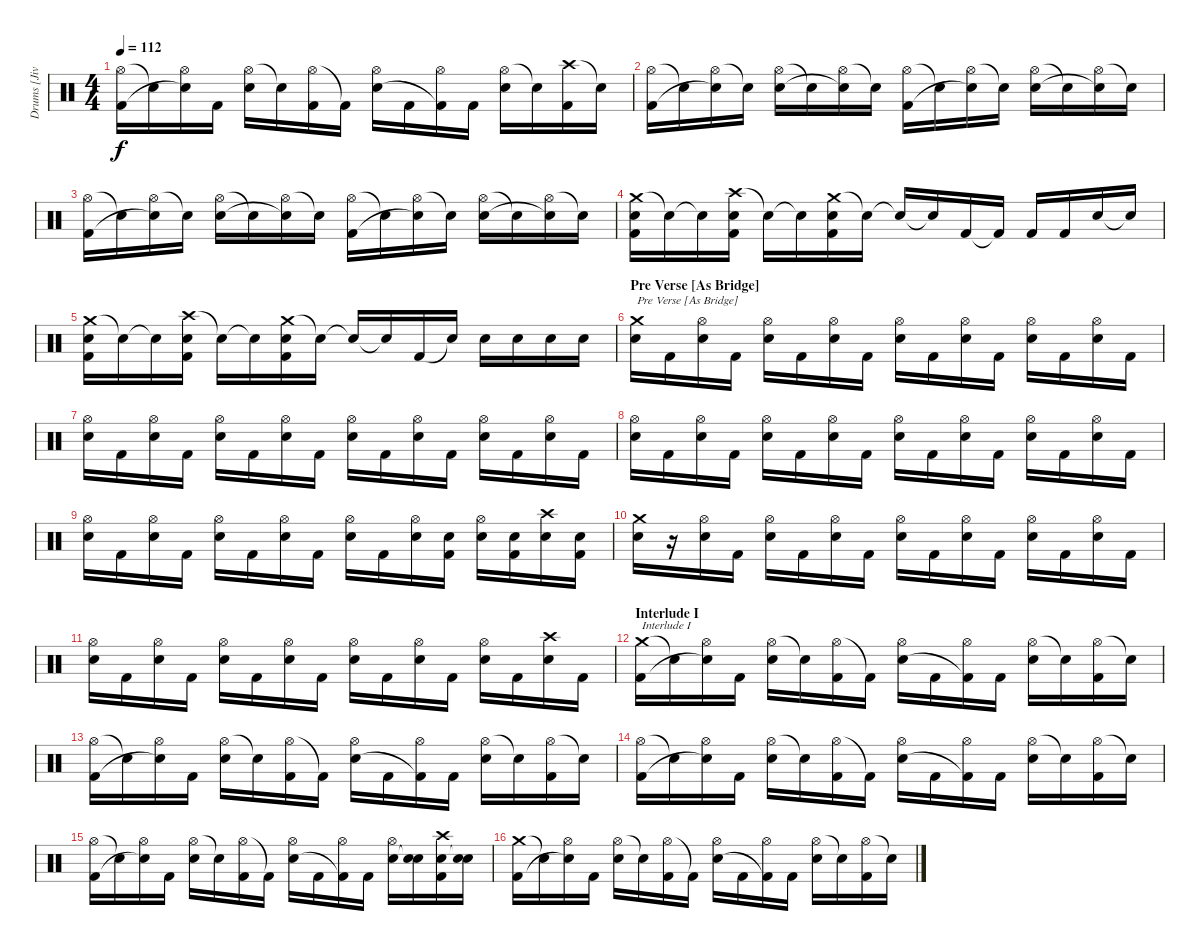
\track ("Drums [Jivarp]" "Drums [Jiv") {instrument percussion}
\staff {score}
\articulation defaults
\ts (4 4)
\tempo 112
\clef neutral
\ks c
("Hi-Hat (open)" "Kick (hit) 2").16{dy f} "Snare (hit)"{t}.16 ("Hi-Hat (open)" "Snare (hit)"{t}).16 "Kick (hit) 2".16 ("Hi-Hat (open)" "Electric Snare (hit)").16 "Snare (hit)"{t}.16 ("Hi-Hat (open)" "Kick (hit) 2").16 "Kick (hit) 2"{t}.16 ("Hi-Hat (open)" "Electric Snare (hit)").16 "Kick (hit) 2".16 ("Hi-Hat (open)" "Kick (hit) 2"{t}).16 "Kick (hit) 2".16 ("Hi-Hat (open)" "Electric Snare (hit)").16 "Snare (hit)"{t}.16 ("Crash high (hit)" "Kick (hit) 2").16 "Snare (hit)"{t}.16 |
("Hi-Hat (open)" "Kick (hit) 2").16 "Snare (hit)"{t}.16 ("Hi-Hat (open)" "Snare (hit)"{t}).16 "Snare (hit)"{t}.16 ("Hi-Hat (open)" "Electric Snare (hit)").16 "Snare (hit)"{t}.16 ("Hi-Hat (open)" "Snare (hit)"{t}).16 "Snare (hit)"{t}.16 ("Hi-Hat (open)" "Kick (hit) 2").16 "Snare (hit)"{t}.16 ("Hi-Hat (open)" "Snare (hit)"{t}).16 "Snare (hit)"{t}.16 ("Hi-Hat (open)" "Electric Snare (hit)").16 "Snare (hit)"{t}.16 ("Hi-Hat (open)" "Snare (hit)"{t}).16 "Snare (hit)"{t}.16 |
("Hi-Hat (open)" "Kick (hit) 2").16 "Snare (hit)"{t}.16 ("Hi-Hat (open)" "Snare (hit)"{t}).16 "Snare (hit)"{t}.16 ("Hi-Hat (open)" "Electric Snare (hit)").16 "Snare (hit)"{t}.16 ("Hi-Hat (open)" "Snare (hit)"{t}).16 "Snare (hit)"{t}.16 ("Hi-Hat (open)" "Kick (hit) 2").16 "Snare (hit)"{t}.16 ("Hi-Hat (open)" "Snare (hit)"{t}).16 "Snare (hit)"{t}.16 ("Hi-Hat (open)" "Electric Snare (hit)").16 "Snare (hit)"{t}.16 ("Hi-Hat (open)" "Snare (hit)"{t}).16 "Snare (hit)"{t}.16 |
("Crash medium (hit)" "Electric Snare (hit)" "Kick (hit) 2").16 "Snare (hit)"{t}.16 "Snare (hit)"{t}.16 ("Crash high (hit)" "Electric Snare (hit)" "Kick (hit) 2").16 "Snare (hit)"{t}.16 "Snare (hit)"{t}.16 ("Crash medium (hit)" "Electric Snare (hit)" "Kick (hit) 2").16 "Snare (hit)"{t}.16 "Snare (hit)"{t}.16 "Snare (hit)"{t}.16 "Kick (hit) 2".16 "Kick (hit) 2"{t}.16 "Kick (hit) 2".16 "Kick (hit) 2".16 "Electric Snare (hit)".16 "Snare (hit)"{t}.16 |
("Crash medium (hit)" "Electric Snare (hit)" "Kick (hit) 2").16 "Snare (hit)"{t}.16 "Snare (hit)"{t}.16 ("Crash high (hit)" "Electric Snare (hit)" "Kick (hit) 2").16 "Snare (hit)"{t}.16 "Snare (hit)"{t}.16 ("Crash medium (hit)" "Electric Snare (hit)" "Kick (hit) 2").16 "Snare (hit)"{t}.16 "Snare (hit)"{t}.16 "Snare (hit)"{t}.16 "Kick (hit) 2".16 "Snare (hit)"{t}.16 "Electric Snare (hit)".16 "Electric Snare (hit)".16 "Electric Snare (hit)".16 "Electric Snare (hit)".16 |
\section ("" "Pre Verse [As Bridge]")
("Crash medium (hit)" "Electric Snare (hit)").16{txt "Pre Verse [As Bridge]"} "Kick (hit) 2".16 ("Hi-Hat (open)" "Electric Snare (hit)").16 "Kick (hit) 2".16 ("Hi-Hat (open)" "Electric Snare (hit)").16 "Kick (hit) 2".16 ("Hi-Hat (open)" "Electric Snare (hit)").16 "Kick (hit) 2".16 ("Hi-Hat (open)" "Electric Snare (hit)").16 "Kick (hit) 2".16 ("Hi-Hat (open)" "Electric Snare (hit)").16 "Kick (hit) 2".16 ("Hi-Hat (open)" "Electric Snare (hit)").16 "Kick (hit) 2".16 ("Hi-Hat (open)" "Electric Snare (hit)").16 "Kick (hit) 2".16 |
("Hi-Hat (open)" "Electric Snare (hit)").16 "Kick (hit) 2".16 ("Hi-Hat (open)" "Electric Snare (hit)").16 "Kick (hit) 2".16 ("Hi-Hat (open)" "Electric Snare (hit)").16 "Kick (hit) 2".16 ("Hi-Hat (open)" "Electric Snare (hit)").16 "Kick (hit) 2".16 ("Hi-Hat (open)" "Electric Snare (hit)").16 "Kick (hit) 2".16 ("Hi-Hat (open)" "Electric Snare (hit)").16 "Kick (hit) 2".16 ("Hi-Hat (open)" "Electric Snare (hit)").16 "Kick (hit) 2".16 ("Hi-Hat (open)" "Electric Snare (hit)").16 "Kick (hit) 2".16 |
("Hi-Hat (open)" "Electric Snare (hit)").16 "Kick (hit) 2".16 ("Hi-Hat (open)" "Electric Snare (hit)").16 "Kick (hit) 2".16 ("Hi-Hat (open)" "Electric Snare (hit)").16 "Kick (hit) 2".16 ("Hi-Hat (open)" "Electric Snare (hit)").16 "Kick (hit) 2".16 ("Hi-Hat (open)" "Electric Snare (hit)").16 "Kick (hit) 2".16 ("Hi-Hat (open)" "Electric Snare (hit)").16 "Kick (hit) 2".16 ("Hi-Hat (open)" "Electric Snare (hit)").16 "Kick (hit) 2".16 ("Hi-Hat (open)" "Electric Snare (hit)").16 "Kick (hit) 2".16 |
("Hi-Hat (open)" "Electric Snare (hit)").16 "Kick (hit) 2".16 ("Hi-Hat (open)" "Electric Snare (hit)").16 "Kick (hit) 2".16 ("Hi-Hat (open)" "Electric Snare (hit)").16 "Kick (hit) 2".16 ("Hi-Hat (open)" "Electric Snare (hit)").16 "Kick (hit) 2".16 ("Hi-Hat (open)" "Electric Snare (hit)").16 "Kick (hit) 2".16 ("Hi-Hat (open)" "Electric Snare (hit)").16 ("Electric Snare (hit)" "Kick (hit) 2").16 ("Hi-Hat (open)" "Electric Snare (hit)").16 ("Electric Snare (hit)" "Kick (hit) 2").16 ("Crash high (hit)" "Electric Snare (hit)").16 ("Electric Snare (hit)" "Kick (hit) 2").16 |
("Crash medium (hit)" "Electric Snare (hit)").16 r.16 ("Hi-Hat (open)" "Electric Snare (hit)").16 "Kick (hit) 2".16 ("Hi-Hat (open)" "Electric Snare (hit)").16 "Kick (hit) 2".16 ("Hi-Hat (open)" "Electric Snare (hit)").16 "Kick (hit) 2".16 ("Hi-Hat (open)" "Electric Snare (hit)").16 "Kick (hit) 2".16 ("Hi-Hat (open)" "Electric Snare (hit)").16 "Kick (hit) 2".16 ("Hi-Hat (open)" "Electric Snare (hit)").16 "Kick (hit) 2".16 ("Hi-Hat (open)" "Electric Snare (hit)").16 "Kick (hit) 2".16 |
("Hi-Hat (open)" "Electric Snare (hit)").16 "Kick (hit) 2".16 ("Hi-Hat (open)" "Electric Snare (hit)").16 "Kick (hit) 2".16 ("Hi-Hat (open)" "Electric Snare (hit)").16 "Kick (hit) 2".16 ("Hi-Hat (open)" "Electric Snare (hit)").16 "Kick (hit) 2".16 ("Hi-Hat (open)" "Electric Snare (hit)").16 "Kick (hit) 2".16 ("Hi-Hat (open)" "Electric Snare (hit)").16 "Kick (hit) 2".16 ("Hi-Hat (open)" "Electric Snare (hit)").16 "Kick (hit) 2".16 ("Crash high (hit)" "Electric Snare (hit)").16 "Kick (hit) 2".16 |
\section ("" "Interlude I")
("Crash medium (hit)" "Kick (hit) 2").16{txt "Interlude I"} "Snare (hit)"{t}.16 ("Hi-Hat (open)" "Snare (hit)"{t}).16 "Kick (hit) 2".16 ("Hi-Hat (open)" "Electric Snare (hit)").16 "Snare (hit)"{t}.16 ("Hi-Hat (open)" "Kick (hit) 2").16 "Kick (hit) 2"{t}.16 ("Hi-Hat (open)" "Electric Snare (hit)").16 "Kick (hit) 2".16 ("Hi-Hat (open)" "Kick (hit) 2"{t}).16 "Kick (hit) 2".16 ("Hi-Hat (open)" "Electric Snare (hit)").16 "Snare (hit)"{t}.16 ("Hi-Hat (open)" "Kick (hit) 2").16 "Snare (hit)"{t}.16 |
("Hi-Hat (open)" "Kick (hit) 2").16 "Snare (hit)"{t}.16 ("Hi-Hat (open)" "Snare (hit)"{t}).16 "Kick (hit) 2".16 ("Hi-Hat (open)" "Electric Snare (hit)").16 "Snare (hit)"{t}.16 ("Hi-Hat (open)" "Kick (hit) 2").16 "Kick (hit) 2"{t}.16 ("Hi-Hat (open)" "Electric Snare (hit)").16 "Kick (hit) 2".16 ("Hi-Hat (open)" "Kick (hit) 2"{t}).16 "Kick (hit) 2".16 ("Hi-Hat (open)" "Electric Snare (hit)").16 "Snare (hit)"{t}.16 ("Hi-Hat (open)" "Kick (hit) 2").16 "Snare (hit)"{t}.16 |
("Hi-Hat (open)" "Kick (hit) 2").16 "Snare (hit)"{t}.16 ("Hi-Hat (open)" "Snare (hit)"{t}).16 "Kick (hit) 2".16 ("Hi-Hat (open)" "Electric Snare (hit)").16 "Snare (hit)"{t}.16 ("Hi-Hat (open)" "Kick (hit) 2").16 "Kick (hit) 2"{t}.16 ("Hi-Hat (open)" "Electric Snare (hit)").16 "Kick (hit) 2".16 ("Hi-Hat (open)" "Kick (hit) 2"{t}).16 "Kick (hit) 2".16 ("Hi-Hat (open)" "Electric Snare (hit)").16 "Snare (hit)"{t}.16 ("Hi-Hat (open)" "Kick (hit) 2").16 "Snare (hit)"{t}.16 |
("Hi-Hat (open)" "Kick (hit) 2").16 "Snare (hit)"{t}.16 ("Hi-Hat (open)" "Snare (hit)"{t}).16 "Kick (hit) 2".16 ("Hi-Hat (open)" "Electric Snare (hit)").16 "Snare (hit)"{t}.16 ("Hi-Hat (open)" "Kick (hit) 2").16 "Kick (hit) 2"{t}.16 ("Hi-Hat (open)" "Electric Snare (hit)").16 "Kick (hit) 2".16 ("Hi-Hat (open)" "Kick (hit) 2"{t}).16 "Kick (hit) 2".16 ("Hi-Hat (open)" "Electric Snare (hit)").16 ("Electric Snare (hit)" "Snare (hit)"{t}).16 ("Crash high (hit)" "Electric Snare (hit)" "Kick (hit) 2").16 ("Electric Snare (hit)" "Snare (hit)"{t}).16 |
("Crash medium (hit)" "Kick (hit) 2").16 "Snare (hit)"{t}.16 ("Hi-Hat (open)" "Snare (hit)"{t}).16 "Kick (hit) 2".16 ("Hi-Hat (open)" "Electric Snare (hit)").16 "Snare (hit)"{t}.16 ("Hi-Hat (open)" "Kick (hit) 2").16 "Kick (hit) 2"{t}.16 ("Hi-Hat (open)" "Electric Snare (hit)").16 "Kick (hit) 2".16 ("Hi-Hat (open)" "Kick (hit) 2"{t}).16 "Kick (hit) 2".16 ("Hi-Hat (open)" "Electric Snare (hit)").16 "Snare (hit)"{t}.16 ("Hi-Hat (open)" "Kick (hit) 2").16 "Snare (hit)"{t}.16
